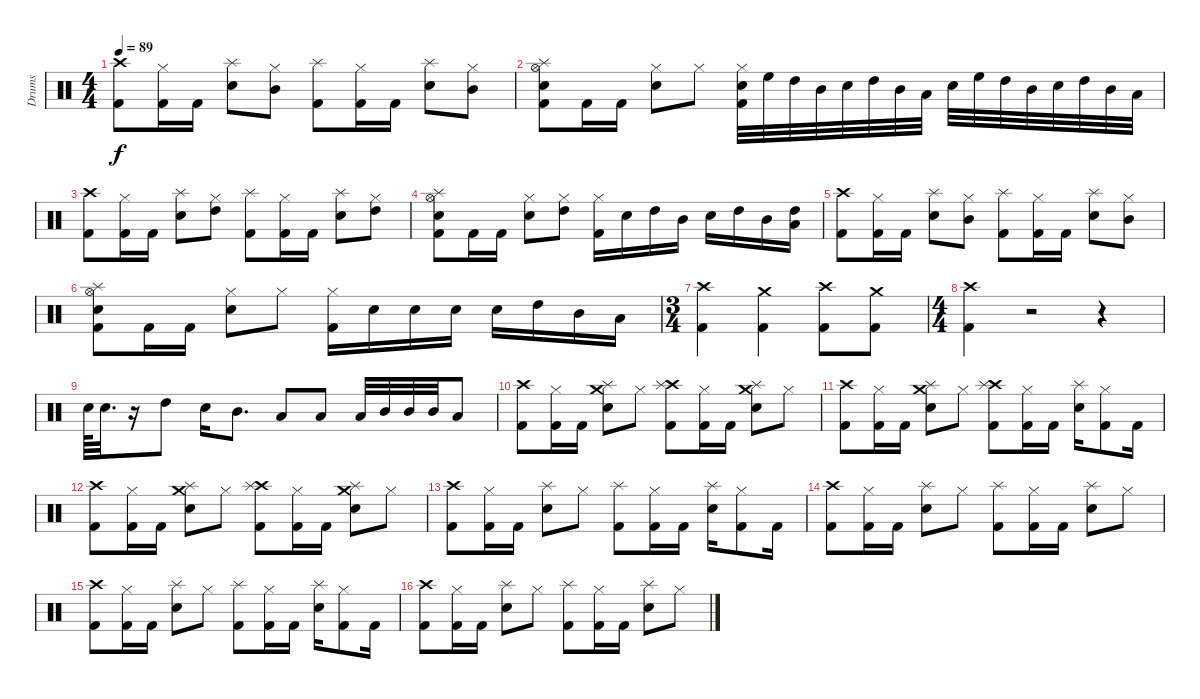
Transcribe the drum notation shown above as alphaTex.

\track ("Drums" "Drums") {instrument percussion}
\staff {score}
\articulation defaults
\ts (4 4)
\tempo 89
\clef neutral
\ks c
("Kick (hit) 2" "Crash high (hit)").8{dy f} ("Kick (hit) 2" "Hi-Hat (closed)").16 "Kick (hit) 2".16 ("Snare (hit) 2" "Splash (hit)").8 ("Hi-Hat (closed)" "Mid Tom (hit)").8 ("Kick (hit) 2" "Splash (hit)").8 ("Kick (hit) 2" "Hi-Hat (closed)").16 "Kick (hit) 2".16 ("Snare (hit) 2" "Splash (hit)").8 ("Hi-Hat (closed)" "Mid Tom (hit)").8 |
("Kick (hit) 2" "Snare (hit) 2" "Hi-Hat (open)" "Splash (hit)").8 "Kick (hit) 2".16 "Kick (hit) 2".16 ("Snare (hit) 2" "Hi-Hat (closed)").8 "Hi-Hat (closed)".8 ("Kick (hit) 2" "Snare (hit) 2" "Hi-Hat (closed)").32 "High Floor Tom (hit)".32 "High Tom (hit)".32 "Mid Tom (hit)".32 "Snare (hit) 2".32 "High Tom (hit)".32 "Mid Tom (hit)".32 "Low Tom (hit)".32 "Snare (hit) 2".32 "High Floor Tom (hit)".32 "High Tom (hit)".32 "Mid Tom (hit)".32 "Snare (hit) 2".32 "High Tom (hit)".32 "Mid Tom (hit)".32 "Low Tom (hit)".32 |
("Kick (hit) 2" "Crash high (hit)").8 ("Kick (hit) 2" "Hi-Hat (closed)").16 "Kick (hit) 2".16 ("Snare (hit) 2" "Splash (hit)").8 ("Hi-Hat (closed)" "High Tom (hit)").8 ("Kick (hit) 2" "Splash (hit)").8 ("Kick (hit) 2" "Hi-Hat (closed)").16 "Kick (hit) 2".16 ("Snare (hit) 2" "Splash (hit)").8 ("Hi-Hat (closed)" "High Tom (hit)").8 |
("Kick (hit) 2" "Snare (hit) 2" "Hi-Hat (open)" "Splash (hit)").8 "Kick (hit) 2".16 "Kick (hit) 2".16 ("Snare (hit) 2" "Hi-Hat (closed)").8 ("Hi-Hat (closed)" "High Tom (hit)").8 ("Kick (hit) 2" "Hi-Hat (closed)").16 "Snare (hit) 2".16 "High Tom (hit)".16 "Mid Tom (hit)".16 "Snare (hit) 2".16 "High Tom (hit)".16 "Mid Tom (hit)".16 ("Low Tom (hit)" "High Tom (hit)").16 |
("Kick (hit) 2" "Crash high (hit)").8 ("Kick (hit) 2" "Hi-Hat (closed)").16 "Kick (hit) 2".16 ("Snare (hit) 2" "Splash (hit)").8 ("Hi-Hat (closed)" "Mid Tom (hit)").8 ("Kick (hit) 2" "Splash (hit)").8 ("Kick (hit) 2" "Hi-Hat (closed)").16 "Kick (hit) 2".16 ("Snare (hit) 2" "Splash (hit)").8 ("Hi-Hat (closed)" "Mid Tom (hit)").8 |
("Kick (hit) 2" "Snare (hit) 2" "Hi-Hat (open)" "Splash (hit)").8 "Kick (hit) 2".16 "Kick (hit) 2".16 ("Snare (hit) 2" "Hi-Hat (closed)").8 "Hi-Hat (closed)".8 ("Kick (hit) 2" "Hi-Hat (closed)").16 "Snare (hit) 2".16 "Snare (hit) 2".16 "Snare (hit) 2".16 "Snare (hit) 2".16 "High Tom (hit)".16 "Mid Tom (hit)".16 "Low Tom (hit)".16 |
\ts (3 4)
("Kick (hit) 2" "Crash high (hit)").4 ("Kick (hit) 2" "Crash medium (hit)").4 ("Kick (hit) 2" "Crash high (hit)").8 ("Kick (hit) 2" "Crash medium (hit)").8 |
\ts (4 4)
("Kick (hit) 2" "Crash high (hit)").4 r.2 r.4 |
"Snare (hit) 2".64 "Snare (hit) 2".32{d} r.16 "High Tom (hit)".8 "Snare (hit) 2".16 "Mid Tom (hit)".8{d} "Low Tom (hit)".8 "Low Tom (hit)".8 "Low Tom (hit)".32 "Mid Tom (hit)".32 "Mid Tom (hit)".32 "Mid Tom (hit)".32 "Low Tom (hit)".8 |
("Kick (hit) 2" "Crash high (hit)").8 ("Kick (hit) 2" "Hi-Hat (closed)").16 "Kick (hit) 2".16 ("Snare (hit) 2" "Crash medium (hit)" "Splash (hit)").8 "Hi-Hat (closed)".8 ("Kick (hit) 2" "Crash high (hit)" "Splash (hit)").8 ("Kick (hit) 2" "Hi-Hat (closed)").16 "Kick (hit) 2".16 ("Snare (hit) 2" "Crash medium (hit)" "Splash (hit)").8 "Hi-Hat (closed)".8 |
("Kick (hit) 2" "Crash high (hit)").8 ("Kick (hit) 2" "Hi-Hat (closed)").16 "Kick (hit) 2".16 ("Snare (hit) 2" "Crash medium (hit)" "Splash (hit)").8 "Hi-Hat (closed)".8 ("Kick (hit) 2" "Crash high (hit)" "Splash (hit)").8 ("Kick (hit) 2" "Hi-Hat (closed)").16 "Kick (hit) 2".16 ("Snare (hit) 2" "Splash (hit)").16 ("Kick (hit) 2" "Hi-Hat (closed)").8 "Kick (hit) 2".16 |
("Kick (hit) 2" "Crash high (hit)").8 ("Kick (hit) 2" "Hi-Hat (closed)").16 "Kick (hit) 2".16 ("Snare (hit) 2" "Crash medium (hit)" "Splash (hit)").8 "Hi-Hat (closed)".8 ("Kick (hit) 2" "Crash high (hit)" "Splash (hit)").8 ("Kick (hit) 2" "Hi-Hat (closed)").16 "Kick (hit) 2".16 ("Snare (hit) 2" "Crash medium (hit)" "Splash (hit)").8 "Hi-Hat (closed)".8 |
("Kick (hit) 2" "Crash high (hit)").8 ("Kick (hit) 2" "Hi-Hat (closed)").16 "Kick (hit) 2".16 ("Snare (hit) 2" "Splash (hit)").8 "Hi-Hat (closed)".8 ("Kick (hit) 2" "Splash (hit)").8 ("Kick (hit) 2" "Hi-Hat (closed)").16 "Kick (hit) 2".16 ("Snare (hit) 2" "Splash (hit)").16 ("Kick (hit) 2" "Hi-Hat (closed)").8 "Kick (hit) 2".16 |
("Kick (hit) 2" "Crash high (hit)").8 ("Kick (hit) 2" "Hi-Hat (closed)").16 "Kick (hit) 2".16 ("Snare (hit) 2" "Splash (hit)").8 "Hi-Hat (closed)".8 ("Kick (hit) 2" "Splash (hit)").8 ("Kick (hit) 2" "Hi-Hat (closed)").16 "Kick (hit) 2".16 ("Snare (hit) 2" "Splash (hit)").8 "Hi-Hat (closed)".8 |
("Kick (hit) 2" "Crash high (hit)").8 ("Kick (hit) 2" "Hi-Hat (closed)").16 "Kick (hit) 2".16 ("Snare (hit) 2" "Splash (hit)").8 "Hi-Hat (closed)".8 ("Kick (hit) 2" "Splash (hit)").8 ("Kick (hit) 2" "Hi-Hat (closed)").16 "Kick (hit) 2".16 ("Snare (hit) 2" "Splash (hit)").16 ("Kick (hit) 2" "Hi-Hat (closed)").8 "Kick (hit) 2".16 |
("Kick (hit) 2" "Crash high (hit)").8 ("Kick (hit) 2" "Hi-Hat (closed)").16 "Kick (hit) 2".16 ("Snare (hit) 2" "Splash (hit)").8 "Hi-Hat (closed)".8 ("Kick (hit) 2" "Splash (hit)").8 ("Kick (hit) 2" "Hi-Hat (closed)").16 "Kick (hit) 2".16 ("Snare (hit) 2" "Splash (hit)").8 "Hi-Hat (closed)".8
